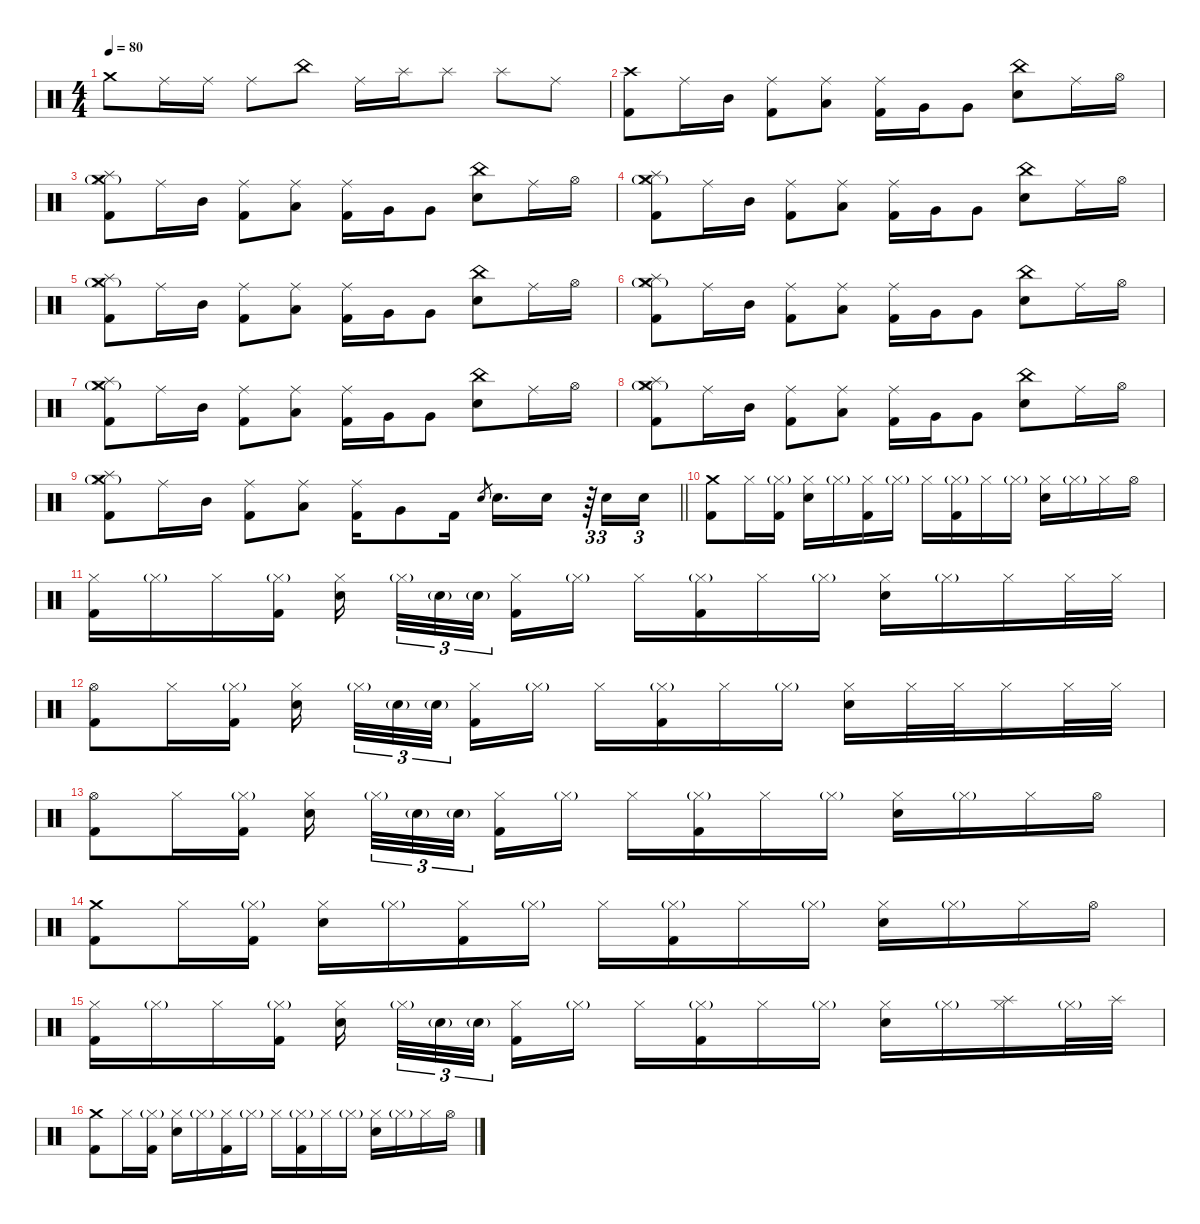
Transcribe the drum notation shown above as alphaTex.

\defaultSystemsLayout 4
\hideDynamics
\bracketExtendMode nobrackets
\singleTrackTrackNamePolicy hidden
\multiTrackTrackNamePolicy hidden
\firstSystemTrackNameMode fullname
\firstSystemTrackNameOrientation horizontal
\otherSystemsTrackNameOrientation horizontal
\track ("Percussions" "drm.") {defaultSystemsLayout 4 instrument percussion}
\staff {score}
\articulation defaults
\ts (4 4)
\tempo 80
\clef neutral
\ks c "Crash medium (hit)".8{dy fff beam Down} "Ride (middle)".16{dy f beam Down} "Ride (middle)".16{beam Down} "Ride (middle)".8{beam Down} "China (hit)".8{dy fff beam Down} "Ride (middle)".16{dy f beam Down} "Splash (hit)".16{dy fff beam Down} "Splash (hit)".8{beam Down} "Splash (hit)".8{beam Down} "Ride (middle)".8{dy f beam Down}
|
("Crash high (hit)" "Kick (hit) 2").8{dy fff beam Down} "Ride (middle)".16{dy mf beam Down} "Mid Tom (hit)".16{dy fff beam Down} ("Kick (hit) 2" "Ride (middle)").8{dy f beam Down} ("Low Tom (hit)" "Ride (middle)").8{dy fff beam Down} ("Kick (hit) 2" "Ride (middle)").16{dy f beam Down} "Very Low Tom (hit)".16{dy fff beam Down} "Very Low Tom (hit)".8{beam Down} ("China (hit)" "Snare (hit) 2").8{beam Down} "Ride (middle)".16{dy mf beam Down} "Hi-Hat (open)".16{dy fff beam Down} |
("Splash (hit)" "Crash medium (hit)" "Hi-Hat (closed)"{g} "Kick (hit) 2").8{beam Down} "Ride (middle)".16{dy mf beam Down} "Mid Tom (hit)".16{dy fff beam Down} ("Kick (hit) 2" "Ride (middle)").8{dy f beam Down} ("Low Tom (hit)" "Ride (middle)").8{dy fff beam Down} ("Kick (hit) 2" "Ride (middle)").16{dy f beam Down} "Very Low Tom (hit)".16{dy fff beam Down} "Very Low Tom (hit)".8{beam Down} ("China (hit)" "Snare (hit) 2").8{beam Down} "Ride (middle)".16{dy mf beam Down} "Hi-Hat (open)".16{dy fff beam Down} |
("Crash medium (hit)" "Splash (hit)" "Hi-Hat (closed)"{g} "Kick (hit) 2").8{beam Down} "Ride (middle)".16{dy mf beam Down} "Mid Tom (hit)".16{dy fff beam Down} ("Kick (hit) 2" "Ride (middle)").8{dy f beam Down} ("Low Tom (hit)" "Ride (middle)").8{dy fff beam Down} ("Kick (hit) 2" "Ride (middle)").16{dy f beam Down} "Very Low Tom (hit)".16{dy fff beam Down} "Very Low Tom (hit)".8{beam Down} ("China (hit)" "Snare (hit) 2").8{beam Down} "Ride (middle)".16{dy mf beam Down} "Hi-Hat (open)".16{dy fff beam Down} |
("Crash medium (hit)" "Splash (hit)" "Hi-Hat (closed)"{g} "Kick (hit) 2").8{beam Down} "Ride (middle)".16{dy mf beam Down} "Mid Tom (hit)".16{dy fff beam Down} ("Kick (hit) 2" "Ride (middle)").8{dy f beam Down} ("Low Tom (hit)" "Ride (middle)").8{dy fff beam Down} ("Kick (hit) 2" "Ride (middle)").16{dy f beam Down} "Very Low Tom (hit)".16{dy fff beam Down} "Very Low Tom (hit)".8{beam Down} ("China (hit)" "Snare (hit) 2").8{beam Down} "Ride (middle)".16{dy mf beam Down} "Hi-Hat (open)".16{dy fff beam Down} |
("Crash medium (hit)" "Splash (hit)" "Hi-Hat (closed)"{g} "Kick (hit) 2").8{beam Down} "Ride (middle)".16{dy mf beam Down} "Mid Tom (hit)".16{dy fff beam Down} ("Kick (hit) 2" "Ride (middle)").8{dy f beam Down} ("Low Tom (hit)" "Ride (middle)").8{dy fff beam Down} ("Kick (hit) 2" "Ride (middle)").16{dy f beam Down} "Very Low Tom (hit)".16{dy fff beam Down} "Very Low Tom (hit)".8{beam Down} ("China (hit)" "Snare (hit) 2").8{beam Down} "Ride (middle)".16{dy mf beam Down} "Hi-Hat (open)".16{dy fff beam Down} |
("Crash medium (hit)" "Splash (hit)" "Hi-Hat (closed)"{g} "Kick (hit) 2").8{beam Down} "Ride (middle)".16{dy mf beam Down} "Mid Tom (hit)".16{dy fff beam Down} ("Kick (hit) 2" "Ride (middle)").8{dy f beam Down} ("Low Tom (hit)" "Ride (middle)").8{dy fff beam Down} ("Kick (hit) 2" "Ride (middle)").16{dy f beam Down} "Very Low Tom (hit)".16{dy fff beam Down} "Very Low Tom (hit)".8{beam Down} ("China (hit)" "Snare (hit) 2").8{beam Down} "Ride (middle)".16{dy mf beam Down} "Hi-Hat (open)".16{dy fff beam Down} |
("Crash medium (hit)" "Splash (hit)" "Hi-Hat (closed)"{g} "Kick (hit) 2").8{beam Down} "Ride (middle)".16{dy mf beam Down} "Mid Tom (hit)".16{dy fff beam Down} ("Kick (hit) 2" "Ride (middle)").8{dy f beam Down} ("Low Tom (hit)" "Ride (middle)").8{dy fff beam Down} ("Kick (hit) 2" "Ride (middle)").16{dy f beam Down} "Very Low Tom (hit)".16{dy fff beam Down} "Very Low Tom (hit)".8{beam Down} ("China (hit)" "Snare (hit) 2").8{beam Down} "Ride (middle)".16{dy mf beam Down} "Hi-Hat (open)".16{dy fff beam Down} |
\barLineRight lightlight
("Crash medium (hit)" "Splash (hit)" "Hi-Hat (closed)"{g} "Kick (hit) 2").8{beam Down} "Ride (middle)".16{dy mf beam Down} "Mid Tom (hit)".16{dy fff beam Down} ("Kick (hit) 2" "Ride (middle)").8{dy f beam Down} ("Low Tom (hit)" "Ride (middle)").8{dy fff beam Down} ("Kick (hit) 2" "Ride (middle)").16{dy f beam Down} "Very Low Tom (hit)".8{dy fff beam Down} "Kick (hit) 2".16{beam Down} "Electric Snare (hit)".8{gr dy ff beam Up} "Snare (hit) 2".16{d dy fff beam Down} "Snare (hit) 2".16{beam Down} r.64{tu (3 2) beam Down} "Snare (hit) 2".16{tu (3 2) beam Down} "Snare (hit) 2".16{tu (3 2) beam Down} |
("Crash medium (hit)" "Kick (hit) 2").8{dy f beam Down} "Hi-Hat (closed)".16{beam Down} ("Kick (hit) 2" "Hi-Hat (closed)"{g}).16{beam Down} ("Snare (hit) 2" "Hi-Hat (closed)").16{beam Down} "Hi-Hat (closed)"{g}.16{dy mf beam Down} ("Kick (hit) 2" "Hi-Hat (closed)").16{dy f beam Down} "Hi-Hat (closed)"{g}.16{dy mf beam Down} "Hi-Hat (closed)".16{dy f beam Down} ("Kick (hit) 2" "Hi-Hat (closed)"{g}).16{beam Down} "Hi-Hat (closed)".16{beam Down} "Hi-Hat (closed)"{g}.16{dy mf beam Down} ("Snare (hit) 2" "Hi-Hat (closed)").16{dy f beam Down} "Hi-Hat (closed)"{g}.16{dy mf beam Down} "Hi-Hat (closed)".16{dy f beam Down} "Hi-Hat (open)".16{beam Down} |
("Kick (hit) 2" "Hi-Hat (closed)").16{beam Down} "Hi-Hat (closed)"{g}.16{dy mf beam Down} "Hi-Hat (closed)".16{dy f beam Down} ("Kick (hit) 2" "Hi-Hat (closed)"{g}).16{beam Down} ("Snare (hit) 2" "Hi-Hat (closed)").16{beam Down} "Hi-Hat (closed)"{g}.32{tu (3 2) dy mf beam Down} "Snare (hit) 2"{g}.32{tu (3 2) beam Down} "Snare (hit) 2"{g}.32{tu (3 2) beam Down} ("Kick (hit) 2" "Hi-Hat (closed)").16{dy f beam Down} "Hi-Hat (closed)"{g}.16{dy mf beam Down} "Hi-Hat (closed)".16{dy f beam Down} ("Kick (hit) 2" "Hi-Hat (closed)"{g}).16{beam Down} "Hi-Hat (closed)".16{beam Down} "Hi-Hat (closed)"{g}.16{dy mf beam Down} ("Snare (hit) 2" "Hi-Hat (closed)").16{dy f beam Down} "Hi-Hat (closed)"{g}.16{dy mf beam Down} "Hi-Hat (closed)".16{dy f beam Down} "Hi-Hat (closed)".32{beam Down} "Hi-Hat (closed)".32{beam Down} |
("Kick (hit) 2" "Hi-Hat (open)").8{beam Down} "Hi-Hat (closed)".16{beam Down} ("Kick (hit) 2" "Hi-Hat (closed)"{g}).16{beam Down} ("Snare (hit) 2" "Hi-Hat (closed)").16{beam Down} "Hi-Hat (closed)"{g}.32{tu (3 2) dy mf beam Down} "Snare (hit) 2"{g}.32{tu (3 2) beam Down} "Snare (hit) 2"{g}.32{tu (3 2) beam Down} ("Kick (hit) 2" "Hi-Hat (closed)").16{dy f beam Down} "Hi-Hat (closed)"{g}.16{dy mf beam Down} "Hi-Hat (closed)".16{dy f beam Down} ("Kick (hit) 2" "Hi-Hat (closed)"{g}).16{beam Down} "Hi-Hat (closed)".16{beam Down} "Hi-Hat (closed)"{g}.16{dy mf beam Down} ("Snare (hit) 2" "Hi-Hat (closed)").16{dy f beam Down} "Hi-Hat (closed)".32{beam Down} "Hi-Hat (closed)".32{beam Down} "Hi-Hat (closed)".16{beam Down} "Hi-Hat (closed)".32{beam Down} "Hi-Hat (closed)".32{beam Down} |
("Kick (hit) 2" "Hi-Hat (open)").8{beam Down} "Hi-Hat (closed)".16{beam Down} ("Kick (hit) 2" "Hi-Hat (closed)"{g}).16{beam Down} ("Snare (hit) 2" "Hi-Hat (closed)").16{beam Down} "Hi-Hat (closed)"{g}.32{tu (3 2) dy mf beam Down} "Snare (hit) 2"{g}.32{tu (3 2) beam Down} "Snare (hit) 2"{g}.32{tu (3 2) beam Down} ("Kick (hit) 2" "Hi-Hat (closed)").16{dy f beam Down} "Hi-Hat (closed)"{g}.16{dy mf beam Down} "Hi-Hat (closed)".16{dy f beam Down} ("Kick (hit) 2" "Hi-Hat (closed)"{g}).16{beam Down} "Hi-Hat (closed)".16{beam Down} "Hi-Hat (closed)"{g}.16{dy mf beam Down} ("Snare (hit) 2" "Hi-Hat (closed)").16{dy f beam Down} "Hi-Hat (closed)"{g}.16{dy mf beam Down} "Hi-Hat (closed)".16{dy f beam Down} "Hi-Hat (open)".16{beam Down} |
("Crash medium (hit)" "Kick (hit) 2").8{beam Down} "Hi-Hat (closed)".16{beam Down} ("Kick (hit) 2" "Hi-Hat (closed)"{g}).16{beam Down} ("Snare (hit) 2" "Hi-Hat (closed)").16{beam Down} "Hi-Hat (closed)"{g}.16{dy mf beam Down} ("Kick (hit) 2" "Hi-Hat (closed)").16{dy f beam Down} "Hi-Hat (closed)"{g}.16{dy mf beam Down} "Hi-Hat (closed)".16{dy f beam Down} ("Kick (hit) 2" "Hi-Hat (closed)"{g}).16{beam Down} "Hi-Hat (closed)".16{beam Down} "Hi-Hat (closed)"{g}.16{dy mf beam Down} ("Snare (hit) 2" "Hi-Hat (closed)").16{dy f beam Down} "Hi-Hat (closed)"{g}.16{dy mf beam Down} "Hi-Hat (closed)".16{dy f beam Down} "Hi-Hat (open)".16{beam Down} |
("Kick (hit) 2" "Hi-Hat (closed)").16{beam Down} "Hi-Hat (closed)"{g}.16{dy mf beam Down} "Hi-Hat (closed)".16{dy f beam Down} ("Kick (hit) 2" "Hi-Hat (closed)"{g}).16{beam Down} ("Snare (hit) 2" "Hi-Hat (closed)").16{beam Down} "Hi-Hat (closed)"{g}.32{tu (3 2) dy mf beam Down} "Snare (hit) 2"{g}.32{tu (3 2) beam Down} "Snare (hit) 2"{g}.32{tu (3 2) beam Down} ("Kick (hit) 2" "Hi-Hat (closed)").16{dy f beam Down} "Hi-Hat (closed)"{g}.16{dy mf beam Down} "Hi-Hat (closed)".16{dy f beam Down} ("Kick (hit) 2" "Hi-Hat (closed)"{g}).16{beam Down} "Hi-Hat (closed)".16{beam Down} "Hi-Hat (closed)"{g}.16{dy mf beam Down} ("Snare (hit) 2" "Hi-Hat (closed)").16{dy f beam Down} "Hi-Hat (closed)"{g}.16{dy mf beam Down} ("Splash (hit)" "Hi-Hat (closed)").16{dy fff beam Down} "Hi-Hat (closed)"{g}.32{dy ff beam Down} "Splash (hit)".32{dy fff beam Down} |
("Crash medium (hit)" "Kick (hit) 2").8{dy f beam Down} "Hi-Hat (closed)".16{beam Down} ("Kick (hit) 2" "Hi-Hat (closed)"{g}).16{beam Down} ("Snare (hit) 2" "Hi-Hat (closed)").16{beam Down} "Hi-Hat (closed)"{g}.16{dy mf beam Down} ("Kick (hit) 2" "Hi-Hat (closed)").16{dy f beam Down} "Hi-Hat (closed)"{g}.16{dy mf beam Down} "Hi-Hat (closed)".16{dy f beam Down} ("Kick (hit) 2" "Hi-Hat (closed)"{g}).16{beam Down} "Hi-Hat (closed)".16{beam Down} "Hi-Hat (closed)"{g}.16{dy mf beam Down} ("Snare (hit) 2" "Hi-Hat (closed)").16{dy f beam Down} "Hi-Hat (closed)"{g}.16{dy mf beam Down} "Hi-Hat (closed)".16{dy f beam Down} "Hi-Hat (open)".16{beam Down}
